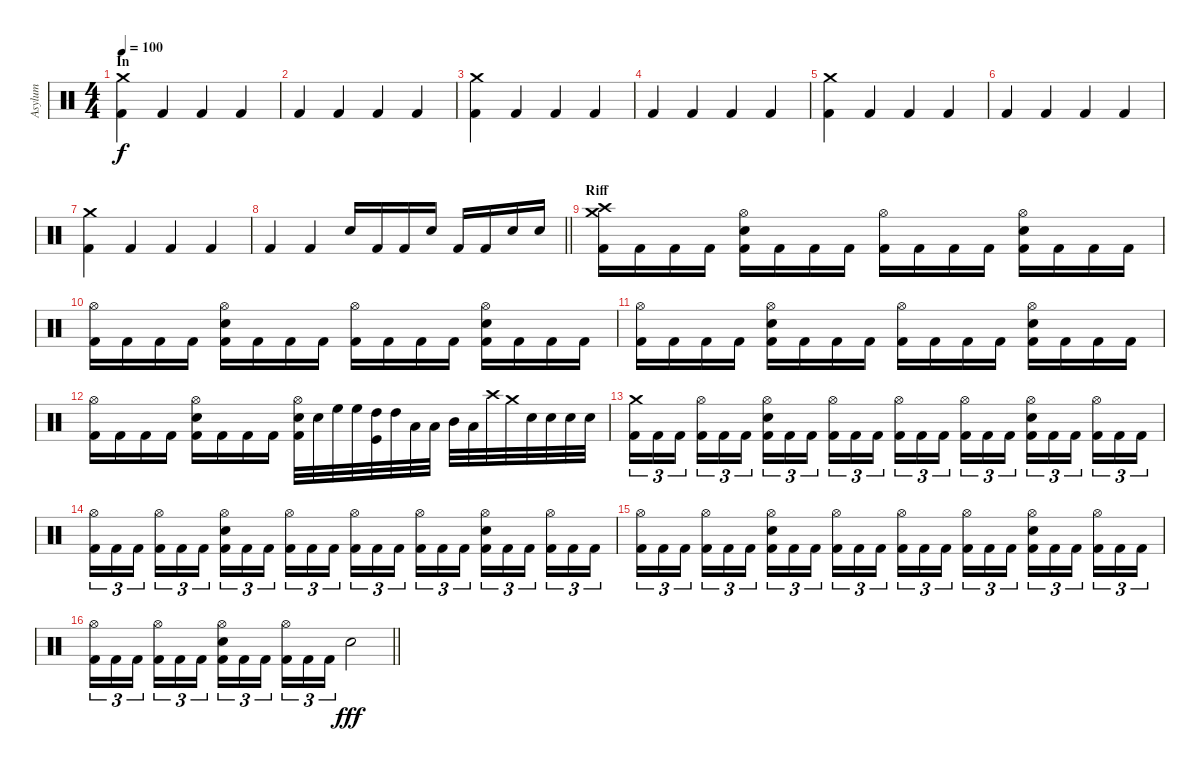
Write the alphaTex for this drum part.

\track ("Asylum" "Asylum") {instrument percussion}
\staff {score}
\articulation defaults
\ts (4 4)
\section ("" "In")
\tempo 100
\clef neutral
\ks c
("Crash medium (hit)" "Kick (hit) 2").4{dy f} "Kick (hit) 2".4 "Kick (hit) 2".4 "Kick (hit) 2".4 |
"Kick (hit) 2".4 "Kick (hit) 2".4 "Kick (hit) 2".4 "Kick (hit) 2".4 |
("Crash medium (hit)" "Kick (hit) 2").4 "Kick (hit) 2".4 "Kick (hit) 2".4 "Kick (hit) 2".4 |
"Kick (hit) 2".4 "Kick (hit) 2".4 "Kick (hit) 2".4 "Kick (hit) 2".4 |
("Crash medium (hit)" "Kick (hit) 2").4 "Kick (hit) 2".4 "Kick (hit) 2".4 "Kick (hit) 2".4 |
"Kick (hit) 2".4 "Kick (hit) 2".4 "Kick (hit) 2".4 "Kick (hit) 2".4 |
("Crash medium (hit)" "Kick (hit) 2").4 "Kick (hit) 2".4 "Kick (hit) 2".4 "Kick (hit) 2".4 |
\barLineRight lightlight "Kick (hit) 2".4 "Kick (hit) 2".4 "Electric Snare (hit)".16 "Kick (hit) 2".16 "Kick (hit) 2".16 "Electric Snare (hit)".16 "Kick (hit) 2".16 "Kick (hit) 2".16 "Electric Snare (hit)".16 "Electric Snare (hit)".16
|
\section ("" "Riff")
("Crash high (hit)" "Crash medium (hit)" "Kick (hit) 2").16 "Kick (hit) 2".16 "Kick (hit) 2".16 "Kick (hit) 2".16 ("Hi-Hat (open)" "Electric Snare (hit)" "Kick (hit) 2").16 "Kick (hit) 2".16 "Kick (hit) 2".16 "Kick (hit) 2".16 ("Hi-Hat (open)" "Kick (hit) 2").16 "Kick (hit) 2".16 "Kick (hit) 2".16 "Kick (hit) 2".16 ("Hi-Hat (open)" "Electric Snare (hit)" "Kick (hit) 2").16 "Kick (hit) 2".16 "Kick (hit) 2".16 "Kick (hit) 2".16 |
("Hi-Hat (open)" "Kick (hit) 2").16 "Kick (hit) 2".16 "Kick (hit) 2".16 "Kick (hit) 2".16 ("Hi-Hat (open)" "Electric Snare (hit)" "Kick (hit) 2").16 "Kick (hit) 2".16 "Kick (hit) 2".16 "Kick (hit) 2".16 ("Hi-Hat (open)" "Kick (hit) 2").16 "Kick (hit) 2".16 "Kick (hit) 2".16 "Kick (hit) 2".16 ("Hi-Hat (open)" "Electric Snare (hit)" "Kick (hit) 2").16 "Kick (hit) 2".16 "Kick (hit) 2".16 "Kick (hit) 2".16 |
("Hi-Hat (open)" "Kick (hit) 2").16 "Kick (hit) 2".16 "Kick (hit) 2".16 "Kick (hit) 2".16 ("Hi-Hat (open)" "Electric Snare (hit)" "Kick (hit) 2").16 "Kick (hit) 2".16 "Kick (hit) 2".16 "Kick (hit) 2".16 ("Hi-Hat (open)" "Kick (hit) 2").16 "Kick (hit) 2".16 "Kick (hit) 2".16 "Kick (hit) 2".16 ("Hi-Hat (open)" "Electric Snare (hit)" "Kick (hit) 2").16 "Kick (hit) 2".16 "Kick (hit) 2".16 "Kick (hit) 2".16 |
("Hi-Hat (open)" "Kick (hit) 2").16 "Kick (hit) 2".16 "Kick (hit) 2".16 "Kick (hit) 2".16 ("Hi-Hat (open)" "Electric Snare (hit)" "Kick (hit) 2").16 "Kick (hit) 2".16 "Kick (hit) 2".16 "Kick (hit) 2".16 ("Hi-Hat (open)" "Electric Snare (hit)" "Kick (hit) 2").32 "Electric Snare (hit)".32 "High Floor Tom (hit)".32 "High Floor Tom (hit)".32 ("High Tom (hit)" "Kick (hit)").32 "High Tom (hit)".32 "Low Tom (hit)".32 "Low Tom (hit)".32 "Mid Tom (hit)".32 "Low Tom (hit)".32 "Crash high (hit)".32 "Crash medium (hit)".32 "Electric Snare (hit)".32 "Electric Snare (hit)".32 "Electric Snare (hit)".32 "Electric Snare (hit)".32 |
("Crash medium (hit)" "Kick (hit) 2").16{tu (3 2)} "Kick (hit) 2".16{tu (3 2)} "Kick (hit) 2".16{tu (3 2)} ("Hi-Hat (open)" "Kick (hit) 2").16{tu (3 2)} "Kick (hit) 2".16{tu (3 2)} "Kick (hit) 2".16{tu (3 2)} ("Hi-Hat (open)" "Electric Snare (hit)" "Kick (hit) 2").16{tu (3 2)} "Kick (hit) 2".16{tu (3 2)} "Kick (hit) 2".16{tu (3 2)} ("Hi-Hat (open)" "Kick (hit) 2").16{tu (3 2)} "Kick (hit) 2".16{tu (3 2)} "Kick (hit) 2".16{tu (3 2)} ("Hi-Hat (open)" "Kick (hit) 2").16{tu (3 2)} "Kick (hit) 2".16{tu (3 2)} "Kick (hit) 2".16{tu (3 2)} ("Hi-Hat (open)" "Kick (hit) 2").16{tu (3 2)} "Kick (hit) 2".16{tu (3 2)} "Kick (hit) 2".16{tu (3 2)} ("Hi-Hat (open)" "Electric Snare (hit)" "Kick (hit) 2").16{tu (3 2)} "Kick (hit) 2".16{tu (3 2)} "Kick (hit) 2".16{tu (3 2)} ("Hi-Hat (open)" "Kick (hit) 2").16{tu (3 2)} "Kick (hit) 2".16{tu (3 2)} "Kick (hit) 2".16{tu (3 2)} |
("Hi-Hat (open)" "Kick (hit) 2").16{tu (3 2)} "Kick (hit) 2".16{tu (3 2)} "Kick (hit) 2".16{tu (3 2)} ("Hi-Hat (open)" "Kick (hit) 2").16{tu (3 2)} "Kick (hit) 2".16{tu (3 2)} "Kick (hit) 2".16{tu (3 2)} ("Hi-Hat (open)" "Electric Snare (hit)" "Kick (hit) 2").16{tu (3 2)} "Kick (hit) 2".16{tu (3 2)} "Kick (hit) 2".16{tu (3 2)} ("Hi-Hat (open)" "Kick (hit) 2").16{tu (3 2)} "Kick (hit) 2".16{tu (3 2)} "Kick (hit) 2".16{tu (3 2)} ("Hi-Hat (open)" "Kick (hit) 2").16{tu (3 2)} "Kick (hit) 2".16{tu (3 2)} "Kick (hit) 2".16{tu (3 2)} ("Hi-Hat (open)" "Kick (hit) 2").16{tu (3 2)} "Kick (hit) 2".16{tu (3 2)} "Kick (hit) 2".16{tu (3 2)} ("Hi-Hat (open)" "Electric Snare (hit)" "Kick (hit) 2").16{tu (3 2)} "Kick (hit) 2".16{tu (3 2)} "Kick (hit) 2".16{tu (3 2)} ("Hi-Hat (open)" "Kick (hit) 2").16{tu (3 2)} "Kick (hit) 2".16{tu (3 2)} "Kick (hit) 2".16{tu (3 2)} |
("Hi-Hat (open)" "Kick (hit) 2").16{tu (3 2)} "Kick (hit) 2".16{tu (3 2)} "Kick (hit) 2".16{tu (3 2)} ("Hi-Hat (open)" "Kick (hit) 2").16{tu (3 2)} "Kick (hit) 2".16{tu (3 2)} "Kick (hit) 2".16{tu (3 2)} ("Hi-Hat (open)" "Electric Snare (hit)" "Kick (hit) 2").16{tu (3 2)} "Kick (hit) 2".16{tu (3 2)} "Kick (hit) 2".16{tu (3 2)} ("Hi-Hat (open)" "Kick (hit) 2").16{tu (3 2)} "Kick (hit) 2".16{tu (3 2)} "Kick (hit) 2".16{tu (3 2)} ("Hi-Hat (open)" "Kick (hit) 2").16{tu (3 2)} "Kick (hit) 2".16{tu (3 2)} "Kick (hit) 2".16{tu (3 2)} ("Hi-Hat (open)" "Kick (hit) 2").16{tu (3 2)} "Kick (hit) 2".16{tu (3 2)} "Kick (hit) 2".16{tu (3 2)} ("Hi-Hat (open)" "Electric Snare (hit)" "Kick (hit) 2").16{tu (3 2)} "Kick (hit) 2".16{tu (3 2)} "Kick (hit) 2".16{tu (3 2)} ("Hi-Hat (open)" "Kick (hit) 2").16{tu (3 2)} "Kick (hit) 2".16{tu (3 2)} "Kick (hit) 2".16{tu (3 2)} |
\barLineRight lightlight
("Hi-Hat (open)" "Kick (hit) 2").16{tu (3 2)} "Kick (hit) 2".16{tu (3 2)} "Kick (hit) 2".16{tu (3 2)} ("Hi-Hat (open)" "Kick (hit) 2").16{tu (3 2)} "Kick (hit) 2".16{tu (3 2)} "Kick (hit) 2".16{tu (3 2)} ("Hi-Hat (open)" "Electric Snare (hit)" "Kick (hit) 2").16{tu (3 2)} "Kick (hit) 2".16{tu (3 2)} "Kick (hit) 2".16{tu (3 2)} ("Hi-Hat (open)" "Kick (hit) 2").16{tu (3 2)} "Kick (hit) 2".16{tu (3 2)} "Kick (hit) 2".16{tu (3 2)} "Electric Snare (hit)".2{dy fff}
